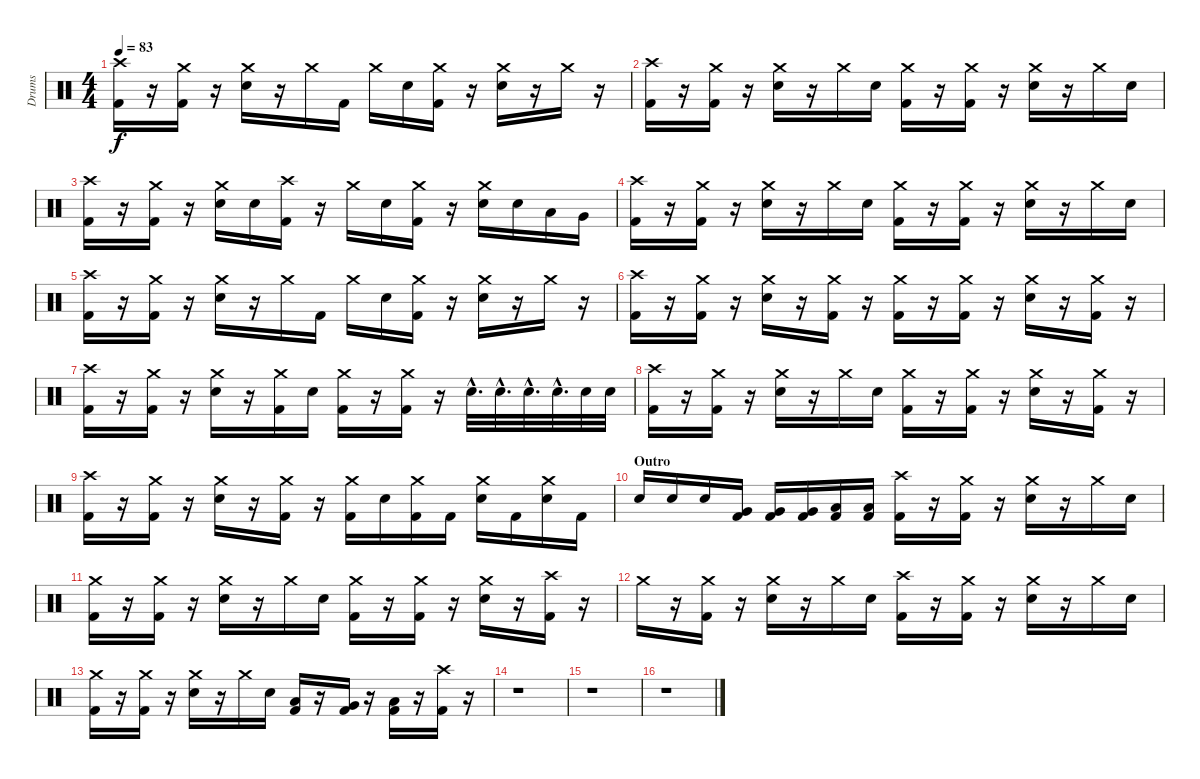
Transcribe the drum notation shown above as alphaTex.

\track ("Drums" "Drums") {instrument percussion}
\staff {score}
\articulation defaults
\ts (4 4)
\tempo 83
\clef neutral
\ks c
("Crash high (hit)" "Kick (hit) 2").16{dy f} r.16 ("Crash medium (hit)" "Kick (hit) 2").16 r.16 ("Crash medium (hit)" "Electric Snare (hit)").16 r.16 "Crash medium (hit)".16 "Kick (hit) 2".16 "Crash medium (hit)".16 "Electric Snare (hit)".16 ("Crash medium (hit)" "Kick (hit) 2").16 r.16 ("Crash medium (hit)" "Electric Snare (hit)").16 r.16 "Crash medium (hit)".16 r.16 |
("Crash high (hit)" "Kick (hit) 2").16 r.16 ("Crash medium (hit)" "Kick (hit) 2").16 r.16 ("Crash medium (hit)" "Electric Snare (hit)").16 r.16 "Crash medium (hit)".16 "Electric Snare (hit)".16 ("Crash medium (hit)" "Kick (hit) 2").16 r.16 ("Crash medium (hit)" "Kick (hit) 2").16 r.16 ("Crash medium (hit)" "Electric Snare (hit)").16 r.16 "Crash medium (hit)".16 "Electric Snare (hit)".16 |
("Crash high (hit)" "Kick (hit) 2").16 r.16 ("Crash medium (hit)" "Kick (hit) 2").16 r.16 ("Crash medium (hit)" "Electric Snare (hit)").16 "Electric Snare (hit)".16 ("Crash high (hit)" "Kick (hit) 2").16 r.16 "Crash medium (hit)".16 "Electric Snare (hit)".16 ("Crash medium (hit)" "Kick (hit) 2").16 r.16 ("Crash medium (hit)" "Electric Snare (hit)").16 "Electric Snare (hit)".16 "Low Tom (hit)".16 "Very Low Tom (hit)".16 |
("Crash high (hit)" "Kick (hit) 2").16 r.16 ("Crash medium (hit)" "Kick (hit) 2").16 r.16 ("Crash medium (hit)" "Electric Snare (hit)").16 r.16 "Crash medium (hit)".16 "Electric Snare (hit)".16 ("Crash medium (hit)" "Kick (hit) 2").16 r.16 ("Crash medium (hit)" "Kick (hit) 2").16 r.16 ("Crash medium (hit)" "Electric Snare (hit)").16 r.16 "Crash medium (hit)".16 "Electric Snare (hit)".16 |
("Crash high (hit)" "Kick (hit) 2").16 r.16 ("Crash medium (hit)" "Kick (hit) 2").16 r.16 ("Crash medium (hit)" "Electric Snare (hit)").16 r.16 "Crash medium (hit)".16 "Kick (hit) 2".16 "Crash medium (hit)".16 "Electric Snare (hit)".16 ("Crash medium (hit)" "Kick (hit) 2").16 r.16 ("Crash medium (hit)" "Electric Snare (hit)").16 r.16 "Crash medium (hit)".16 r.16 |
("Crash high (hit)" "Kick (hit) 2").16 r.16 ("Crash medium (hit)" "Kick (hit) 2").16 r.16 ("Crash medium (hit)" "Electric Snare (hit)").16 r.16 ("Crash medium (hit)" "Kick (hit) 2").16 r.16 ("Crash medium (hit)" "Kick (hit) 2").16 r.16 ("Crash medium (hit)" "Kick (hit) 2").16 r.16 ("Crash medium (hit)" "Electric Snare (hit)").16 r.16 ("Crash medium (hit)" "Kick (hit) 2").16 r.16 |
("Crash high (hit)" "Kick (hit) 2").16 r.16 ("Crash medium (hit)" "Kick (hit) 2").16 r.16 ("Crash medium (hit)" "Electric Snare (hit)").16 r.16 ("Crash medium (hit)" "Kick (hit) 2").16 "Electric Snare (hit)".16 ("Crash medium (hit)" "Kick (hit) 2").16 r.16 ("Crash medium (hit)" "Kick (hit) 2").16 r.16 "Electric Snare (hit)"{hac}.32{d} "Electric Snare (hit)"{hac}.32{d} "Electric Snare (hit)"{hac}.32{d} "Electric Snare (hit)"{hac}.32{d} "Electric Snare (hit)".32 "Electric Snare (hit)".32 |
("Crash high (hit)" "Kick (hit) 2").16 r.16 ("Crash medium (hit)" "Kick (hit) 2").16 r.16 ("Crash medium (hit)" "Electric Snare (hit)").16 r.16 "Crash medium (hit)".16 "Electric Snare (hit)".16 ("Crash medium (hit)" "Kick (hit) 2").16 r.16 ("Crash medium (hit)" "Kick (hit) 2").16 r.16 ("Crash medium (hit)" "Electric Snare (hit)").16 r.16 ("Crash medium (hit)" "Kick (hit) 2").16 r.16 |
("Crash high (hit)" "Kick (hit) 2").16 r.16 ("Crash medium (hit)" "Kick (hit) 2").16 r.16 ("Crash medium (hit)" "Electric Snare (hit)").16 r.16 ("Crash medium (hit)" "Kick (hit) 2").16 r.16 ("Crash medium (hit)" "Kick (hit) 2").16 "Electric Snare (hit)".16 ("Crash medium (hit)" "Kick (hit) 2").16 "Kick (hit) 2".16 ("Crash medium (hit)" "Electric Snare (hit)").16 "Kick (hit) 2".16 ("Crash medium (hit)" "Electric Snare (hit)").16 "Kick (hit) 2".16 |
\section ("" "Outro")
"Electric Snare (hit)".16 "Electric Snare (hit)".16 "Electric Snare (hit)".16 ("Very Low Tom (hit)" "Kick (hit) 2").16 ("Very Low Tom (hit)" "Kick (hit) 2").16 ("Very Low Tom (hit)" "Kick (hit) 2").16 ("Low Floor Tom (hit)" "Kick (hit) 2").16 ("Low Floor Tom (hit)" "Kick (hit) 2").16 ("Crash high (hit)" "Kick (hit) 2").16 r.16 ("Crash medium (hit)" "Kick (hit) 2").16 r.16 ("Crash medium (hit)" "Electric Snare (hit)").16 r.16 "Crash medium (hit)".16 "Electric Snare (hit)".16 |
("Crash medium (hit)" "Kick (hit) 2").16 r.16 ("Crash medium (hit)" "Kick (hit) 2").16 r.16 ("Crash medium (hit)" "Electric Snare (hit)").16 r.16 "Crash medium (hit)".16 "Electric Snare (hit)".16 ("Crash medium (hit)" "Kick (hit) 2").16 r.16 ("Crash medium (hit)" "Kick (hit) 2").16 r.16 ("Crash medium (hit)" "Electric Snare (hit)").16 r.16 ("Crash high (hit)" "Kick (hit) 2").16 r.16 |
"Crash medium (hit)".16 r.16 ("Crash medium (hit)" "Kick (hit) 2").16 r.16 ("Crash medium (hit)" "Electric Snare (hit)").16 r.16 "Crash medium (hit)".16 "Electric Snare (hit)".16 ("Crash high (hit)" "Kick (hit) 2").16 r.16 ("Crash medium (hit)" "Kick (hit) 2").16 r.16 ("Crash medium (hit)" "Electric Snare (hit)").16 r.16 "Crash medium (hit)".16 "Electric Snare (hit)".16 |
("Crash medium (hit)" "Kick (hit) 2").16 r.16 ("Crash medium (hit)" "Kick (hit) 2").16 r.16 ("Crash medium (hit)" "Electric Snare (hit)").16 r.16 "Crash medium (hit)".16 "Electric Snare (hit)".16 ("Low Tom (hit)" "Kick (hit) 2").16 r.16 ("Very Low Tom (hit)" "Kick (hit) 2").16 r.16 ("Low Floor Tom (hit)" "Kick (hit) 2").16 r.16 ("Crash high (hit)" "Kick (hit) 2").16 r.16 |
r.1 |
r.1 |
r.1
